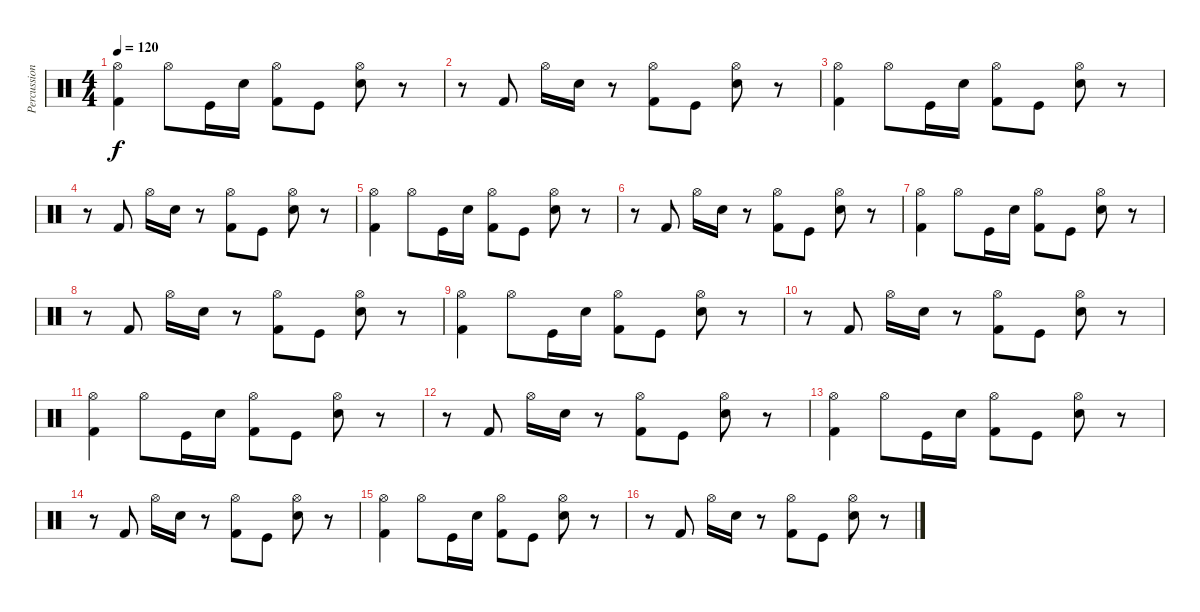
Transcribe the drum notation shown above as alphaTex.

\track ("Percussion" "Percussion") {instrument percussion}
\staff {score}
\articulation defaults
\ts (4 4)
\tempo 120
\clef neutral
\ks c
("Hi-Hat (open)" "Kick (hit) 2").4{dy f} "Hi-Hat (open)".8 "Kick (hit)".16 "Electric Snare (hit)".16 ("Hi-Hat (open)" "Kick (hit) 2").8 "Kick (hit)".8 ("Hi-Hat (open)" "Electric Snare (hit)").8 r.8 |
r.8 "Kick (hit) 2".8 "Hi-Hat (open)".16 "Electric Snare (hit)".16 r.8 ("Hi-Hat (open)" "Kick (hit) 2").8 "Kick (hit)".8 ("Hi-Hat (open)" "Electric Snare (hit)").8 r.8 |
("Hi-Hat (open)" "Kick (hit) 2").4 "Hi-Hat (open)".8 "Kick (hit)".16 "Electric Snare (hit)".16 ("Hi-Hat (open)" "Kick (hit) 2").8 "Kick (hit)".8 ("Hi-Hat (open)" "Electric Snare (hit)").8 r.8 |
r.8 "Kick (hit) 2".8 "Hi-Hat (open)".16 "Electric Snare (hit)".16 r.8 ("Hi-Hat (open)" "Kick (hit) 2").8 "Kick (hit)".8 ("Hi-Hat (open)" "Electric Snare (hit)").8 r.8 |
("Hi-Hat (open)" "Kick (hit) 2").4 "Hi-Hat (open)".8 "Kick (hit)".16 "Electric Snare (hit)".16 ("Hi-Hat (open)" "Kick (hit) 2").8 "Kick (hit)".8 ("Hi-Hat (open)" "Electric Snare (hit)").8 r.8 |
r.8 "Kick (hit) 2".8 "Hi-Hat (open)".16 "Electric Snare (hit)".16 r.8 ("Hi-Hat (open)" "Kick (hit) 2").8 "Kick (hit)".8 ("Hi-Hat (open)" "Electric Snare (hit)").8 r.8 |
("Hi-Hat (open)" "Kick (hit) 2").4 "Hi-Hat (open)".8 "Kick (hit)".16 "Electric Snare (hit)".16 ("Hi-Hat (open)" "Kick (hit) 2").8 "Kick (hit)".8 ("Hi-Hat (open)" "Electric Snare (hit)").8 r.8 |
r.8 "Kick (hit) 2".8 "Hi-Hat (open)".16 "Electric Snare (hit)".16 r.8 ("Hi-Hat (open)" "Kick (hit) 2").8 "Kick (hit)".8 ("Hi-Hat (open)" "Electric Snare (hit)").8 r.8 |
("Hi-Hat (open)" "Kick (hit) 2").4 "Hi-Hat (open)".8 "Kick (hit)".16 "Electric Snare (hit)".16 ("Hi-Hat (open)" "Kick (hit) 2").8 "Kick (hit)".8 ("Hi-Hat (open)" "Electric Snare (hit)").8 r.8 |
r.8 "Kick (hit) 2".8 "Hi-Hat (open)".16 "Electric Snare (hit)".16 r.8 ("Hi-Hat (open)" "Kick (hit) 2").8 "Kick (hit)".8 ("Hi-Hat (open)" "Electric Snare (hit)").8 r.8 |
("Hi-Hat (open)" "Kick (hit) 2").4 "Hi-Hat (open)".8 "Kick (hit)".16 "Electric Snare (hit)".16 ("Hi-Hat (open)" "Kick (hit) 2").8 "Kick (hit)".8 ("Hi-Hat (open)" "Electric Snare (hit)").8 r.8 |
r.8 "Kick (hit) 2".8 "Hi-Hat (open)".16 "Electric Snare (hit)".16 r.8 ("Hi-Hat (open)" "Kick (hit) 2").8 "Kick (hit)".8 ("Hi-Hat (open)" "Electric Snare (hit)").8 r.8 |
("Hi-Hat (open)" "Kick (hit) 2").4 "Hi-Hat (open)".8 "Kick (hit)".16 "Electric Snare (hit)".16 ("Hi-Hat (open)" "Kick (hit) 2").8 "Kick (hit)".8 ("Hi-Hat (open)" "Electric Snare (hit)").8 r.8 |
r.8 "Kick (hit) 2".8 "Hi-Hat (open)".16 "Electric Snare (hit)".16 r.8 ("Hi-Hat (open)" "Kick (hit) 2").8 "Kick (hit)".8 ("Hi-Hat (open)" "Electric Snare (hit)").8 r.8 |
("Hi-Hat (open)" "Kick (hit) 2").4 "Hi-Hat (open)".8 "Kick (hit)".16 "Electric Snare (hit)".16 ("Hi-Hat (open)" "Kick (hit) 2").8 "Kick (hit)".8 ("Hi-Hat (open)" "Electric Snare (hit)").8 r.8 |
r.8 "Kick (hit) 2".8 "Hi-Hat (open)".16 "Electric Snare (hit)".16 r.8 ("Hi-Hat (open)" "Kick (hit) 2").8 "Kick (hit)".8 ("Hi-Hat (open)" "Electric Snare (hit)").8 r.8
